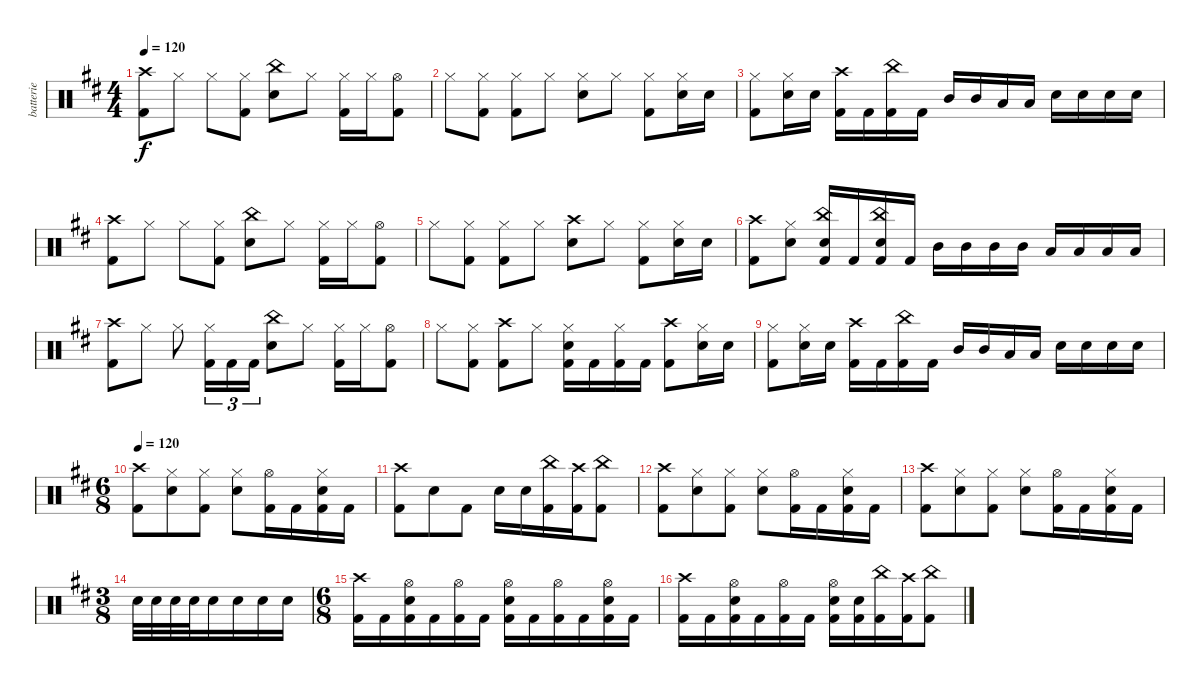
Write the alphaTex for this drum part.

\track ("batterie" "batterie") {instrument percussion}
\staff {score}
\articulation defaults
\ts (4 4)
\tempo 120
\clef neutral
\ks bminor
("Crash high (hit)" "Kick (hit) 2").8{dy f} "Hi-Hat (closed)".8 "Hi-Hat (closed)".8 ("Hi-Hat (closed)" "Kick (hit) 2").8 ("China (hit)" "Snare (hit) 2").8 "Hi-Hat (closed)".8 ("Hi-Hat (closed)" "Kick (hit) 2").16 "Hi-Hat (closed)".16 ("Hi-Hat (open)" "Kick (hit) 2").8 |
"Hi-Hat (closed)".8 ("Hi-Hat (closed)" "Kick (hit) 2").8 ("Hi-Hat (closed)" "Kick (hit) 2").8 "Hi-Hat (closed)".8 ("Hi-Hat (closed)" "Snare (hit) 2").8 "Hi-Hat (closed)".8 ("Hi-Hat (closed)" "Kick (hit) 2").8 ("Hi-Hat (closed)" "Snare (hit) 2").16 "Snare (hit) 2".16 |
("Hi-Hat (closed)" "Kick (hit) 2").8 ("Hi-Hat (closed)" "Snare (hit) 2").16 "Snare (hit) 2".16 ("Crash high (hit)" "Kick (hit) 2").16 "Kick (hit) 2".16 ("China (hit)" "Kick (hit) 2").16 "Kick (hit) 2".16 "Mid Tom (hit)".16 "Mid Tom (hit)".16 "Low Tom (hit)".16 "Low Tom (hit)".16 "Snare (hit) 2".16 "Snare (hit) 2".16 "Snare (hit) 2".16 "Snare (hit) 2".16 |
("Crash high (hit)" "Kick (hit) 2").8 "Hi-Hat (closed)".8 "Hi-Hat (closed)".8 ("Hi-Hat (closed)" "Kick (hit) 2").8 ("China (hit)" "Snare (hit) 2").8 "Hi-Hat (closed)".8 ("Hi-Hat (closed)" "Kick (hit) 2").16 "Hi-Hat (closed)".16 ("Hi-Hat (open)" "Kick (hit) 2").8 |
"Hi-Hat (closed)".8 ("Hi-Hat (closed)" "Kick (hit) 2").8 ("Hi-Hat (closed)" "Kick (hit) 2").8 "Hi-Hat (closed)".8 ("Crash high (hit)" "Snare (hit) 2").8 "Hi-Hat (closed)".8 ("Hi-Hat (closed)" "Kick (hit) 2").8 ("Hi-Hat (closed)" "Snare (hit) 2").16 "Snare (hit) 2".16 |
("Crash high (hit)" "Kick (hit) 2").8 ("Hi-Hat (closed)" "Snare (hit) 2").8 ("China (hit)" "Snare (hit) 2" "Kick (hit) 2").16 "Kick (hit) 2".16 ("China (hit)" "Snare (hit) 2" "Kick (hit) 2").16 "Kick (hit) 2".16 "Mid Tom (hit)".16 "Mid Tom (hit)".16 "Mid Tom (hit)".16 "Mid Tom (hit)".16 "Low Tom (hit)".16 "Low Tom (hit)".16 "Low Floor Tom (hit)".16 "Low Floor Tom (hit)".16 |
("Crash high (hit)" "Kick (hit) 2").8 "Hi-Hat (closed)".8 "Hi-Hat (closed)".8 ("Hi-Hat (closed)" "Kick (hit) 2").16{tu (3 2)} "Kick (hit) 2".16{tu (3 2)} "Kick (hit) 2".16{tu (3 2)} ("China (hit)" "Snare (hit) 2").8 "Hi-Hat (closed)".8 ("Hi-Hat (closed)" "Kick (hit) 2").16 "Hi-Hat (closed)".16 ("Hi-Hat (open)" "Kick (hit) 2").8 |
"Hi-Hat (closed)".8 ("Hi-Hat (closed)" "Kick (hit) 2").8 ("Crash high (hit)" "Kick (hit) 2").8 "Hi-Hat (closed)".8 ("Hi-Hat (closed)" "Snare (hit) 2" "Kick (hit) 2").16 "Kick (hit) 2".16 ("Hi-Hat (closed)" "Kick (hit) 2").16 "Kick (hit) 2".16 ("Crash high (hit)" "Kick (hit) 2").8 ("Hi-Hat (closed)" "Snare (hit) 2").16 "Snare (hit) 2".16 |
("Hi-Hat (closed)" "Kick (hit) 2").8 ("Hi-Hat (closed)" "Snare (hit) 2").16 "Snare (hit) 2".16 ("Crash high (hit)" "Kick (hit) 2").16 "Kick (hit) 2".16 ("China (hit)" "Kick (hit) 2").16 "Kick (hit) 2".16 "Mid Tom (hit)".16 "Mid Tom (hit)".16 "Low Tom (hit)".16 "Low Tom (hit)".16 "Snare (hit) 2".16 "Snare (hit) 2".16 "Snare (hit) 2".16 "Snare (hit) 2".16 |
\ts (6 8)
\tempo 120
("Crash high (hit)" "Kick (hit) 2").8 ("Hi-Hat (closed)" "Snare (hit) 2").8 ("Hi-Hat (closed)" "Kick (hit) 2").8 ("Hi-Hat (closed)" "Snare (hit) 2").8 ("Hi-Hat (open)" "Kick (hit) 2").16 "Kick (hit) 2".16 ("Hi-Hat (closed)" "Snare (hit) 2" "Kick (hit) 2").16 "Kick (hit) 2".16 |
("Crash high (hit)" "Kick (hit) 2").8 "Snare (hit) 2".8 "Kick (hit) 2".8 "Snare (hit) 2".16 "Snare (hit) 2".16 ("China (hit)" "Kick (hit) 2").16 ("Crash high (hit)" "Kick (hit) 2").16 ("China (hit)" "Kick (hit) 2").8 |
("Crash high (hit)" "Kick (hit) 2").8 ("Hi-Hat (closed)" "Snare (hit) 2").8 ("Hi-Hat (closed)" "Kick (hit) 2").8 ("Hi-Hat (closed)" "Snare (hit) 2").8 ("Hi-Hat (open)" "Kick (hit) 2").16 "Kick (hit) 2".16 ("Hi-Hat (closed)" "Snare (hit) 2" "Kick (hit) 2").16 "Kick (hit) 2".16 |
("Crash high (hit)" "Kick (hit) 2").8 ("Hi-Hat (closed)" "Snare (hit) 2").8 ("Hi-Hat (closed)" "Kick (hit) 2").8 ("Hi-Hat (closed)" "Snare (hit) 2").8 ("Hi-Hat (open)" "Kick (hit) 2").16 "Kick (hit) 2".16 ("Hi-Hat (closed)" "Snare (hit) 2" "Kick (hit) 2").16 "Kick (hit) 2".16 |
\ts (3 8)
"Snare (hit) 2".32 "Snare (hit) 2".32 "Snare (hit) 2".32 "Snare (hit) 2".32 "Snare (hit) 2".16 "Snare (hit) 2".16 "Snare (hit) 2".16 "Snare (hit) 2".16 |
\ts (6 8)
("Crash high (hit)" "Kick (hit) 2").16 "Kick (hit) 2".16 ("Hi-Hat (open)" "Snare (hit) 2" "Kick (hit) 2").16 "Kick (hit) 2".16 ("Hi-Hat (open)" "Kick (hit) 2").16 "Kick (hit) 2".16 ("Hi-Hat (open)" "Snare (hit) 2" "Kick (hit) 2").16 "Kick (hit) 2".16 ("Hi-Hat (open)" "Kick (hit) 2").16 "Kick (hit) 2".16 ("Hi-Hat (open)" "Snare (hit) 2" "Kick (hit) 2").16 "Kick (hit) 2".16 |
("Crash high (hit)" "Kick (hit) 2").16 "Kick (hit) 2".16 ("Hi-Hat (open)" "Snare (hit) 2" "Kick (hit) 2").16 "Kick (hit) 2".16 ("Hi-Hat (open)" "Kick (hit) 2").16 "Kick (hit) 2".16 ("Hi-Hat (open)" "Snare (hit) 2" "Kick (hit) 2").16 ("Snare (hit) 2" "Kick (hit) 2").16 ("China (hit)" "Kick (hit) 2").16 ("Crash high (hit)" "Kick (hit) 2").16 ("China (hit)" "Kick (hit) 2").8
